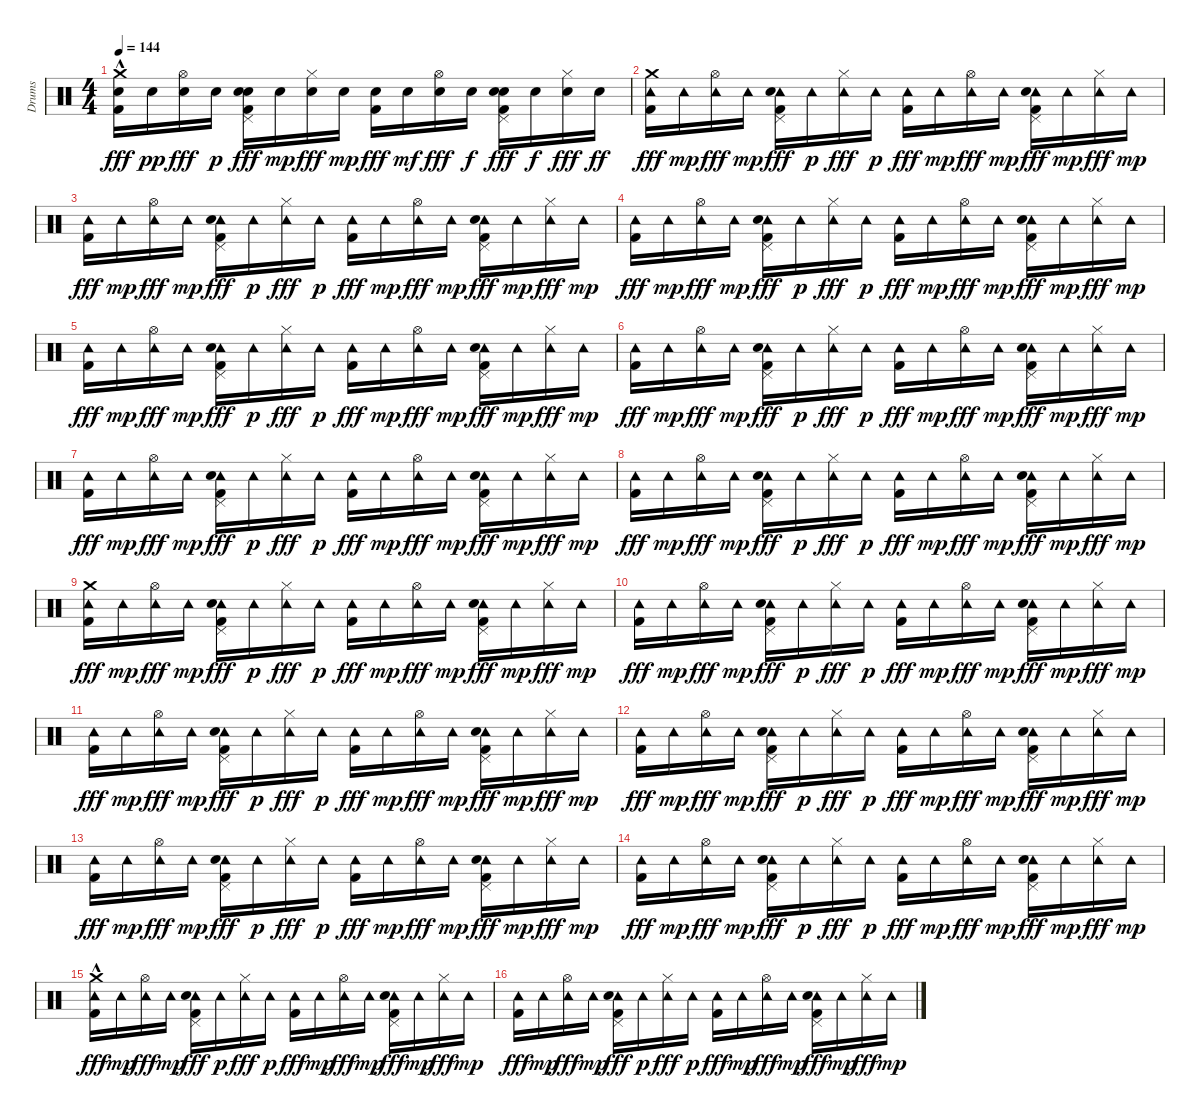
\track ("Drums" "Drums") {instrument percussion}
\staff {score}
\articulation defaults
\ts (4 4)
\tempo 144
\clef neutral
\ks c
("Electric Snare (hit)" "Crash medium (hit)"{hac} "Kick (hit) 2").16{dy fff} "Electric Snare (hit)".16{dy pp} ("Electric Snare (hit)" "Hi-Hat (open)").16{dy fff} "Electric Snare (hit)".16{dy p} ("Electric Snare (hit)" "Pedal Hi-Hat (hit)" "Kick (hit) 2" "Hand Clap (hit)").16{dy fff} "Electric Snare (hit)".16{dy mp} ("Electric Snare (hit)" "Hi-Hat (closed)").16{dy fff} "Electric Snare (hit)".16{dy mp} ("Electric Snare (hit)" "Kick (hit) 2").16{dy fff} "Electric Snare (hit)".16{dy mf} ("Electric Snare (hit)" "Hi-Hat (open)").16{dy fff} "Electric Snare (hit)".16{dy f} ("Electric Snare (hit)" "Pedal Hi-Hat (hit)" "Kick (hit) 2" "Hand Clap (hit)").16{dy fff} "Electric Snare (hit)".16{dy f} ("Electric Snare (hit)" "Hi-Hat (closed)").16{dy fff} "Electric Snare (hit)".16{dy ff} |
("Crash medium (hit)" "Tambourine (hit)" "Kick (hit) 2").16{dy fff} "Tambourine (hit)".16{dy mp} ("Tambourine (hit)" "Hi-Hat (open)").16{dy fff} "Tambourine (hit)".16{dy mp} ("Tambourine (hit)" "Pedal Hi-Hat (hit)" "Kick (hit) 2" "Hand Clap (hit)").16{dy fff} "Tambourine (hit)".16{dy p} ("Tambourine (hit)" "Hi-Hat (closed)").16{dy fff} "Tambourine (hit)".16{dy p} ("Tambourine (hit)" "Kick (hit) 2").16{dy fff} "Tambourine (hit)".16{dy mp} ("Tambourine (hit)" "Hi-Hat (open)").16{dy fff} "Tambourine (hit)".16{dy mp} ("Tambourine (hit)" "Pedal Hi-Hat (hit)" "Kick (hit) 2" "Hand Clap (hit)").16{dy fff} "Tambourine (hit)".16{dy mp} ("Tambourine (hit)" "Hi-Hat (closed)").16{dy fff} "Tambourine (hit)".16{dy mp} |
("Tambourine (hit)" "Kick (hit) 2").16{dy fff} "Tambourine (hit)".16{dy mp} ("Tambourine (hit)" "Hi-Hat (open)").16{dy fff} "Tambourine (hit)".16{dy mp} ("Tambourine (hit)" "Pedal Hi-Hat (hit)" "Kick (hit) 2" "Hand Clap (hit)").16{dy fff} "Tambourine (hit)".16{dy p} ("Tambourine (hit)" "Hi-Hat (closed)").16{dy fff} "Tambourine (hit)".16{dy p} ("Tambourine (hit)" "Kick (hit) 2").16{dy fff} "Tambourine (hit)".16{dy mp} ("Tambourine (hit)" "Hi-Hat (open)").16{dy fff} "Tambourine (hit)".16{dy mp} ("Tambourine (hit)" "Pedal Hi-Hat (hit)" "Kick (hit) 2" "Hand Clap (hit)").16{dy fff} "Tambourine (hit)".16{dy mp} ("Tambourine (hit)" "Hi-Hat (closed)").16{dy fff} "Tambourine (hit)".16{dy mp} |
("Tambourine (hit)" "Kick (hit) 2").16{dy fff} "Tambourine (hit)".16{dy mp} ("Tambourine (hit)" "Hi-Hat (open)").16{dy fff} "Tambourine (hit)".16{dy mp} ("Tambourine (hit)" "Pedal Hi-Hat (hit)" "Kick (hit) 2" "Hand Clap (hit)").16{dy fff} "Tambourine (hit)".16{dy p} ("Tambourine (hit)" "Hi-Hat (closed)").16{dy fff} "Tambourine (hit)".16{dy p} ("Tambourine (hit)" "Kick (hit) 2").16{dy fff} "Tambourine (hit)".16{dy mp} ("Tambourine (hit)" "Hi-Hat (open)").16{dy fff} "Tambourine (hit)".16{dy mp} ("Tambourine (hit)" "Pedal Hi-Hat (hit)" "Kick (hit) 2" "Hand Clap (hit)").16{dy fff} "Tambourine (hit)".16{dy mp} ("Tambourine (hit)" "Hi-Hat (closed)").16{dy fff} "Tambourine (hit)".16{dy mp} |
("Tambourine (hit)" "Kick (hit) 2").16{dy fff} "Tambourine (hit)".16{dy mp} ("Tambourine (hit)" "Hi-Hat (open)").16{dy fff} "Tambourine (hit)".16{dy mp} ("Tambourine (hit)" "Pedal Hi-Hat (hit)" "Kick (hit) 2" "Hand Clap (hit)").16{dy fff} "Tambourine (hit)".16{dy p} ("Tambourine (hit)" "Hi-Hat (closed)").16{dy fff} "Tambourine (hit)".16{dy p} ("Tambourine (hit)" "Kick (hit) 2").16{dy fff} "Tambourine (hit)".16{dy mp} ("Tambourine (hit)" "Hi-Hat (open)").16{dy fff} "Tambourine (hit)".16{dy mp} ("Tambourine (hit)" "Pedal Hi-Hat (hit)" "Kick (hit) 2" "Hand Clap (hit)").16{dy fff} "Tambourine (hit)".16{dy mp} ("Tambourine (hit)" "Hi-Hat (closed)").16{dy fff} "Tambourine (hit)".16{dy mp} |
("Tambourine (hit)" "Kick (hit) 2").16{dy fff} "Tambourine (hit)".16{dy mp} ("Tambourine (hit)" "Hi-Hat (open)").16{dy fff} "Tambourine (hit)".16{dy mp} ("Tambourine (hit)" "Pedal Hi-Hat (hit)" "Kick (hit) 2" "Hand Clap (hit)").16{dy fff} "Tambourine (hit)".16{dy p} ("Tambourine (hit)" "Hi-Hat (closed)").16{dy fff} "Tambourine (hit)".16{dy p} ("Tambourine (hit)" "Kick (hit) 2").16{dy fff} "Tambourine (hit)".16{dy mp} ("Tambourine (hit)" "Hi-Hat (open)").16{dy fff} "Tambourine (hit)".16{dy mp} ("Tambourine (hit)" "Pedal Hi-Hat (hit)" "Kick (hit) 2" "Hand Clap (hit)").16{dy fff} "Tambourine (hit)".16{dy mp} ("Tambourine (hit)" "Hi-Hat (closed)").16{dy fff} "Tambourine (hit)".16{dy mp} |
("Tambourine (hit)" "Kick (hit) 2").16{dy fff} "Tambourine (hit)".16{dy mp} ("Tambourine (hit)" "Hi-Hat (open)").16{dy fff} "Tambourine (hit)".16{dy mp} ("Tambourine (hit)" "Pedal Hi-Hat (hit)" "Kick (hit) 2" "Hand Clap (hit)").16{dy fff} "Tambourine (hit)".16{dy p} ("Tambourine (hit)" "Hi-Hat (closed)").16{dy fff} "Tambourine (hit)".16{dy p} ("Tambourine (hit)" "Kick (hit) 2").16{dy fff} "Tambourine (hit)".16{dy mp} ("Tambourine (hit)" "Hi-Hat (open)").16{dy fff} "Tambourine (hit)".16{dy mp} ("Tambourine (hit)" "Pedal Hi-Hat (hit)" "Kick (hit) 2" "Hand Clap (hit)").16{dy fff} "Tambourine (hit)".16{dy mp} ("Tambourine (hit)" "Hi-Hat (closed)").16{dy fff} "Tambourine (hit)".16{dy mp} |
("Tambourine (hit)" "Kick (hit) 2").16{dy fff} "Tambourine (hit)".16{dy mp} ("Tambourine (hit)" "Hi-Hat (open)").16{dy fff} "Tambourine (hit)".16{dy mp} ("Tambourine (hit)" "Pedal Hi-Hat (hit)" "Kick (hit) 2" "Hand Clap (hit)").16{dy fff} "Tambourine (hit)".16{dy p} ("Tambourine (hit)" "Hi-Hat (closed)").16{dy fff} "Tambourine (hit)".16{dy p} ("Tambourine (hit)" "Kick (hit) 2").16{dy fff} "Tambourine (hit)".16{dy mp} ("Tambourine (hit)" "Hi-Hat (open)").16{dy fff} "Tambourine (hit)".16{dy mp} ("Tambourine (hit)" "Pedal Hi-Hat (hit)" "Kick (hit) 2" "Hand Clap (hit)").16{dy fff} "Tambourine (hit)".16{dy mp} ("Tambourine (hit)" "Hi-Hat (closed)").16{dy fff} "Tambourine (hit)".16{dy mp} |
("Crash medium (hit)" "Tambourine (hit)" "Kick (hit) 2").16{dy fff} "Tambourine (hit)".16{dy mp} ("Tambourine (hit)" "Hi-Hat (open)").16{dy fff} "Tambourine (hit)".16{dy mp} ("Tambourine (hit)" "Pedal Hi-Hat (hit)" "Kick (hit) 2" "Hand Clap (hit)").16{dy fff} "Tambourine (hit)".16{dy p} ("Tambourine (hit)" "Hi-Hat (closed)").16{dy fff} "Tambourine (hit)".16{dy p} ("Tambourine (hit)" "Kick (hit) 2").16{dy fff} "Tambourine (hit)".16{dy mp} ("Tambourine (hit)" "Hi-Hat (open)").16{dy fff} "Tambourine (hit)".16{dy mp} ("Tambourine (hit)" "Pedal Hi-Hat (hit)" "Kick (hit) 2" "Hand Clap (hit)").16{dy fff} "Tambourine (hit)".16{dy mp} ("Tambourine (hit)" "Hi-Hat (closed)").16{dy fff} "Tambourine (hit)".16{dy mp} |
("Tambourine (hit)" "Kick (hit) 2").16{dy fff} "Tambourine (hit)".16{dy mp} ("Tambourine (hit)" "Hi-Hat (open)").16{dy fff} "Tambourine (hit)".16{dy mp} ("Tambourine (hit)" "Pedal Hi-Hat (hit)" "Kick (hit) 2" "Hand Clap (hit)").16{dy fff} "Tambourine (hit)".16{dy p} ("Tambourine (hit)" "Hi-Hat (closed)").16{dy fff} "Tambourine (hit)".16{dy p} ("Tambourine (hit)" "Kick (hit) 2").16{dy fff} "Tambourine (hit)".16{dy mp} ("Tambourine (hit)" "Hi-Hat (open)").16{dy fff} "Tambourine (hit)".16{dy mp} ("Tambourine (hit)" "Pedal Hi-Hat (hit)" "Kick (hit) 2" "Hand Clap (hit)").16{dy fff} "Tambourine (hit)".16{dy mp} ("Tambourine (hit)" "Hi-Hat (closed)").16{dy fff} "Tambourine (hit)".16{dy mp} |
("Tambourine (hit)" "Kick (hit) 2").16{dy fff} "Tambourine (hit)".16{dy mp} ("Tambourine (hit)" "Hi-Hat (open)").16{dy fff} "Tambourine (hit)".16{dy mp} ("Tambourine (hit)" "Pedal Hi-Hat (hit)" "Kick (hit) 2" "Hand Clap (hit)").16{dy fff} "Tambourine (hit)".16{dy p} ("Tambourine (hit)" "Hi-Hat (closed)").16{dy fff} "Tambourine (hit)".16{dy p} ("Tambourine (hit)" "Kick (hit) 2").16{dy fff} "Tambourine (hit)".16{dy mp} ("Tambourine (hit)" "Hi-Hat (open)").16{dy fff} "Tambourine (hit)".16{dy mp} ("Tambourine (hit)" "Pedal Hi-Hat (hit)" "Kick (hit) 2" "Hand Clap (hit)").16{dy fff} "Tambourine (hit)".16{dy mp} ("Tambourine (hit)" "Hi-Hat (closed)").16{dy fff} "Tambourine (hit)".16{dy mp} |
("Tambourine (hit)" "Kick (hit) 2").16{dy fff} "Tambourine (hit)".16{dy mp} ("Tambourine (hit)" "Hi-Hat (open)").16{dy fff} "Tambourine (hit)".16{dy mp} ("Tambourine (hit)" "Pedal Hi-Hat (hit)" "Kick (hit) 2" "Hand Clap (hit)").16{dy fff} "Tambourine (hit)".16{dy p} ("Tambourine (hit)" "Hi-Hat (closed)").16{dy fff} "Tambourine (hit)".16{dy p} ("Tambourine (hit)" "Kick (hit) 2").16{dy fff} "Tambourine (hit)".16{dy mp} ("Tambourine (hit)" "Hi-Hat (open)").16{dy fff} "Tambourine (hit)".16{dy mp} ("Tambourine (hit)" "Pedal Hi-Hat (hit)" "Kick (hit) 2" "Hand Clap (hit)").16{dy fff} "Tambourine (hit)".16{dy mp} ("Tambourine (hit)" "Hi-Hat (closed)").16{dy fff} "Tambourine (hit)".16{dy mp} |
("Tambourine (hit)" "Kick (hit) 2").16{dy fff} "Tambourine (hit)".16{dy mp} ("Tambourine (hit)" "Hi-Hat (open)").16{dy fff} "Tambourine (hit)".16{dy mp} ("Tambourine (hit)" "Pedal Hi-Hat (hit)" "Kick (hit) 2" "Hand Clap (hit)").16{dy fff} "Tambourine (hit)".16{dy p} ("Tambourine (hit)" "Hi-Hat (closed)").16{dy fff} "Tambourine (hit)".16{dy p} ("Tambourine (hit)" "Kick (hit) 2").16{dy fff} "Tambourine (hit)".16{dy mp} ("Tambourine (hit)" "Hi-Hat (open)").16{dy fff} "Tambourine (hit)".16{dy mp} ("Tambourine (hit)" "Pedal Hi-Hat (hit)" "Kick (hit) 2" "Hand Clap (hit)").16{dy fff} "Tambourine (hit)".16{dy mp} ("Tambourine (hit)" "Hi-Hat (closed)").16{dy fff} "Tambourine (hit)".16{dy mp} |
("Tambourine (hit)" "Kick (hit) 2").16{dy fff} "Tambourine (hit)".16{dy mp} ("Tambourine (hit)" "Hi-Hat (open)").16{dy fff} "Tambourine (hit)".16{dy mp} ("Tambourine (hit)" "Pedal Hi-Hat (hit)" "Kick (hit) 2" "Hand Clap (hit)").16{dy fff} "Tambourine (hit)".16{dy p} ("Tambourine (hit)" "Hi-Hat (closed)").16{dy fff} "Tambourine (hit)".16{dy p} ("Tambourine (hit)" "Kick (hit) 2").16{dy fff} "Tambourine (hit)".16{dy mp} ("Tambourine (hit)" "Hi-Hat (open)").16{dy fff} "Tambourine (hit)".16{dy mp} ("Tambourine (hit)" "Pedal Hi-Hat (hit)" "Kick (hit) 2" "Hand Clap (hit)").16{dy fff} "Tambourine (hit)".16{dy mp} ("Tambourine (hit)" "Hi-Hat (closed)").16{dy fff} "Tambourine (hit)".16{dy mp} |
("Crash medium (hit)"{hac} "Tambourine (hit)" "Kick (hit) 2").16{dy fff} "Tambourine (hit)".16{dy mp} ("Tambourine (hit)" "Hi-Hat (open)").16{dy fff} "Tambourine (hit)".16{dy mp} ("Tambourine (hit)" "Pedal Hi-Hat (hit)" "Kick (hit) 2" "Hand Clap (hit)").16{dy fff} "Tambourine (hit)".16{dy p} ("Tambourine (hit)" "Hi-Hat (closed)").16{dy fff} "Tambourine (hit)".16{dy p} ("Tambourine (hit)" "Kick (hit) 2").16{dy fff} "Tambourine (hit)".16{dy mp} ("Tambourine (hit)" "Hi-Hat (open)").16{dy fff} "Tambourine (hit)".16{dy mp} ("Tambourine (hit)" "Pedal Hi-Hat (hit)" "Kick (hit) 2" "Hand Clap (hit)").16{dy fff} "Tambourine (hit)".16{dy mp} ("Tambourine (hit)" "Hi-Hat (closed)").16{dy fff} "Tambourine (hit)".16{dy mp} |
("Tambourine (hit)" "Kick (hit) 2").16{dy fff} "Tambourine (hit)".16{dy mp} ("Tambourine (hit)" "Hi-Hat (open)").16{dy fff} "Tambourine (hit)".16{dy mp} ("Tambourine (hit)" "Pedal Hi-Hat (hit)" "Kick (hit) 2" "Hand Clap (hit)").16{dy fff} "Tambourine (hit)".16{dy p} ("Tambourine (hit)" "Hi-Hat (closed)").16{dy fff} "Tambourine (hit)".16{dy p} ("Tambourine (hit)" "Kick (hit) 2").16{dy fff} "Tambourine (hit)".16{dy mp} ("Tambourine (hit)" "Hi-Hat (open)").16{dy fff} "Tambourine (hit)".16{dy mp} ("Tambourine (hit)" "Pedal Hi-Hat (hit)" "Kick (hit) 2" "Hand Clap (hit)").16{dy fff} "Tambourine (hit)".16{dy mp} ("Tambourine (hit)" "Hi-Hat (closed)").16{dy fff} "Tambourine (hit)".16{dy mp}
